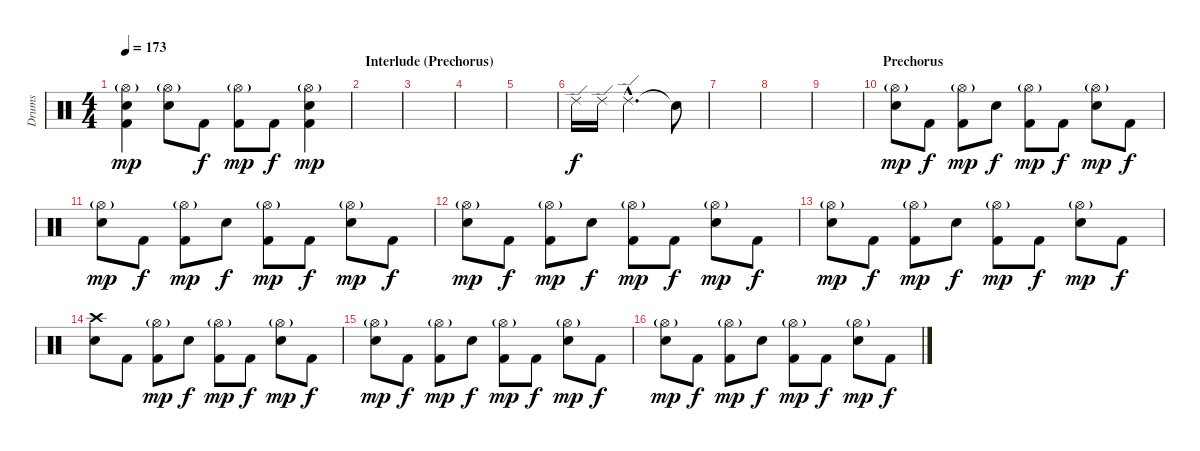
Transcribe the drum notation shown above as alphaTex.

\track ("Drums" "Drums") {instrument percussion}
\staff {score}
\articulation defaults
\ts (4 4)
\tempo 173
\clef neutral
\ks c
("Hi-Hat (open)"{g} "Snare (hit) 2" "Kick (hit) 2").4{dy mp} ("Hi-Hat (open)"{g} "Snare (hit) 2").8 "Kick (hit) 2".8{dy f} ("Hi-Hat (open)"{g} "Kick (hit) 2").8{dy mp} "Kick (hit) 2".8{dy f} ("Hi-Hat (open)"{g} "Snare (hit) 2" "Kick (hit) 2").4{dy mp} |
\section ("" "Interlude (Prechorus)")
|
|
|
|
"Ride (edge) 2".16{dy f volume 8} "Ride (edge) 2".16 "Ride (edge) 2"{hac}.2{d} "Snare (hit)"{t}.8 |
|
|
|
\section ("" "Prechorus")
("Hi-Hat (open)"{g} "Snare (hit) 2").8{dy mp volume 10} "Kick (hit) 2".8{dy f} ("Hi-Hat (open)"{g} "Kick (hit) 2").8{dy mp} "Snare (hit) 2".8{dy f} ("Hi-Hat (open)"{g} "Kick (hit) 2").8{dy mp} "Kick (hit) 2".8{dy f} ("Hi-Hat (open)"{g} "Snare (hit) 2").8{dy mp} "Kick (hit) 2".8{dy f} |
("Hi-Hat (open)"{g} "Snare (hit) 2").8{dy mp} "Kick (hit) 2".8{dy f} ("Hi-Hat (open)"{g} "Kick (hit) 2").8{dy mp} "Snare (hit) 2".8{dy f} ("Hi-Hat (open)"{g} "Kick (hit) 2").8{dy mp} "Kick (hit) 2".8{dy f} ("Hi-Hat (open)"{g} "Snare (hit) 2").8{dy mp} "Kick (hit) 2".8{dy f} |
("Hi-Hat (open)"{g} "Snare (hit) 2").8{dy mp} "Kick (hit) 2".8{dy f} ("Hi-Hat (open)"{g} "Kick (hit) 2").8{dy mp} "Snare (hit) 2".8{dy f} ("Hi-Hat (open)"{g} "Kick (hit) 2").8{dy mp} "Kick (hit) 2".8{dy f} ("Hi-Hat (open)"{g} "Snare (hit) 2").8{dy mp} "Kick (hit) 2".8{dy f} |
("Hi-Hat (open)"{g} "Snare (hit) 2").8{dy mp} "Kick (hit) 2".8{dy f} ("Hi-Hat (open)"{g} "Kick (hit) 2").8{dy mp} "Snare (hit) 2".8{dy f} ("Hi-Hat (open)"{g} "Kick (hit) 2").8{dy mp} "Kick (hit) 2".8{dy f} ("Hi-Hat (open)"{g} "Snare (hit) 2").8{dy mp} "Kick (hit) 2".8{dy f} |
("Crash high (hit)" "Snare (hit) 2").8 "Kick (hit) 2".8 ("Hi-Hat (open)"{g} "Kick (hit) 2").8{dy mp} "Snare (hit) 2".8{dy f} ("Hi-Hat (open)"{g} "Kick (hit) 2").8{dy mp} "Kick (hit) 2".8{dy f} ("Hi-Hat (open)"{g} "Snare (hit) 2").8{dy mp} "Kick (hit) 2".8{dy f} |
("Hi-Hat (open)"{g} "Snare (hit) 2").8{dy mp} "Kick (hit) 2".8{dy f} ("Hi-Hat (open)"{g} "Kick (hit) 2").8{dy mp} "Snare (hit) 2".8{dy f} ("Hi-Hat (open)"{g} "Kick (hit) 2").8{dy mp} "Kick (hit) 2".8{dy f} ("Hi-Hat (open)"{g} "Snare (hit) 2").8{dy mp} "Kick (hit) 2".8{dy f} |
("Hi-Hat (open)"{g} "Snare (hit) 2").8{dy mp} "Kick (hit) 2".8{dy f} ("Hi-Hat (open)"{g} "Kick (hit) 2").8{dy mp} "Snare (hit) 2".8{dy f} ("Hi-Hat (open)"{g} "Kick (hit) 2").8{dy mp} "Kick (hit) 2".8{dy f} ("Hi-Hat (open)"{g} "Snare (hit) 2").8{dy mp} "Kick (hit) 2".8{dy f}
